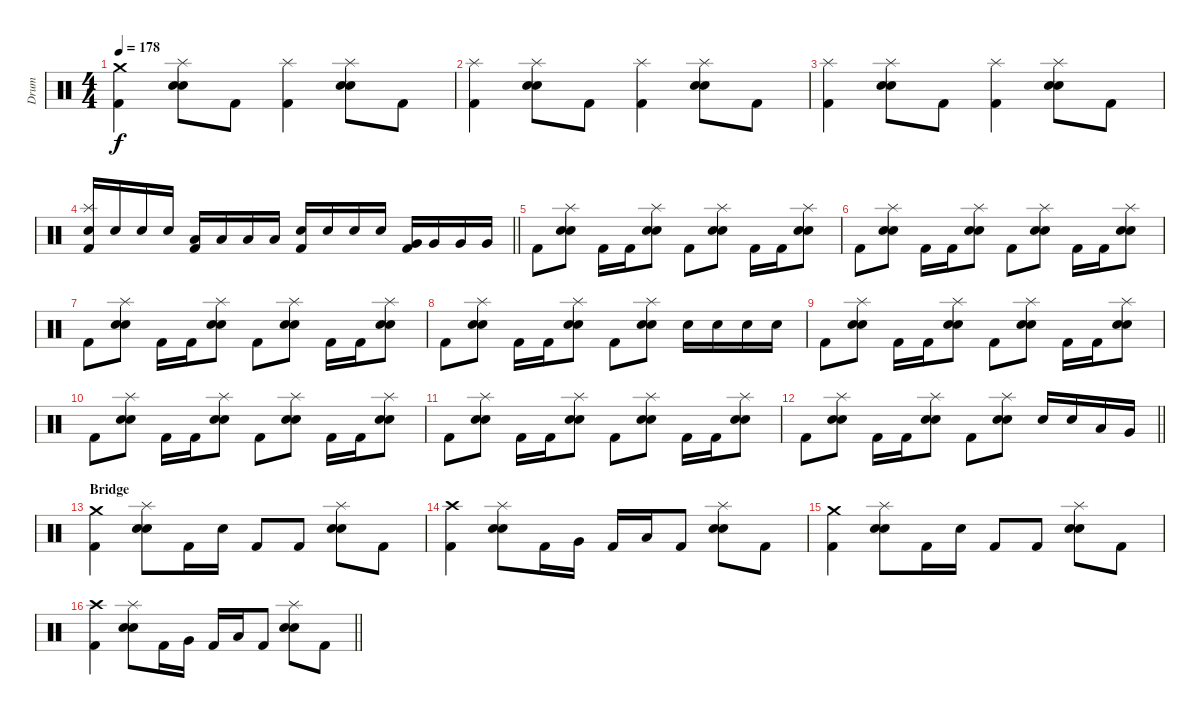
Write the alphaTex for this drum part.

\track ("Drum" "Drum") {instrument percussion}
\staff {score}
\articulation defaults
\ts (4 4)
\tempo 178
\clef neutral
\ks c
("Crash medium (hit)" "Kick (hit) 2").4{dy f} ("Splash (hit)" "Electric Snare (hit)" "Snare (hit) 2").8 "Kick (hit) 2".8 ("Splash (hit)" "Kick (hit) 2").4 ("Splash (hit)" "Electric Snare (hit)" "Snare (hit) 2").8 "Kick (hit) 2".8 |
("Splash (hit)" "Kick (hit) 2").4 ("Splash (hit)" "Electric Snare (hit)" "Snare (hit) 2").8 "Kick (hit) 2".8 ("Splash (hit)" "Kick (hit) 2").4 ("Splash (hit)" "Electric Snare (hit)" "Snare (hit) 2").8 "Kick (hit) 2".8 |
("Splash (hit)" "Kick (hit) 2").4 ("Splash (hit)" "Electric Snare (hit)" "Snare (hit) 2").8 "Kick (hit) 2".8 ("Splash (hit)" "Kick (hit) 2").4 ("Splash (hit)" "Electric Snare (hit)" "Snare (hit) 2").8 "Kick (hit) 2".8 |
\barLineRight lightlight
("Splash (hit)" "Electric Snare (hit)" "Kick (hit) 2").16 "Electric Snare (hit)".16 "Electric Snare (hit)".16 "Electric Snare (hit)".16 ("Low Tom (hit)" "Kick (hit) 2").16 "Low Tom (hit)".16 "Low Tom (hit)".16 "Low Tom (hit)".16 ("Electric Snare (hit)" "Kick (hit) 2").16 "Electric Snare (hit)".16 "Electric Snare (hit)".16 "Electric Snare (hit)".16 ("Very Low Tom (hit)" "Kick (hit) 2").16 "Very Low Tom (hit)".16 "Very Low Tom (hit)".16 "Very Low Tom (hit)".16 |
"Kick (hit) 2".8 ("Splash (hit)" "Electric Snare (hit)" "Snare (hit) 2").8 "Kick (hit) 2".16 "Kick (hit) 2".16 ("Splash (hit)" "Electric Snare (hit)" "Snare (hit) 2").8 "Kick (hit) 2".8 ("Splash (hit)" "Electric Snare (hit)" "Snare (hit) 2").8 "Kick (hit) 2".16 "Kick (hit) 2".16 ("Splash (hit)" "Electric Snare (hit)" "Snare (hit) 2").8 |
"Kick (hit) 2".8 ("Splash (hit)" "Electric Snare (hit)" "Snare (hit) 2").8 "Kick (hit) 2".16 "Kick (hit) 2".16 ("Splash (hit)" "Electric Snare (hit)" "Snare (hit) 2").8 "Kick (hit) 2".8 ("Splash (hit)" "Electric Snare (hit)" "Snare (hit) 2").8 "Kick (hit) 2".16 "Kick (hit) 2".16 ("Splash (hit)" "Electric Snare (hit)" "Snare (hit) 2").8 |
"Kick (hit) 2".8 ("Splash (hit)" "Electric Snare (hit)" "Snare (hit) 2").8 "Kick (hit) 2".16 "Kick (hit) 2".16 ("Splash (hit)" "Electric Snare (hit)" "Snare (hit) 2").8 "Kick (hit) 2".8 ("Splash (hit)" "Electric Snare (hit)" "Snare (hit) 2").8 "Kick (hit) 2".16 "Kick (hit) 2".16 ("Splash (hit)" "Electric Snare (hit)" "Snare (hit) 2").8 |
"Kick (hit) 2".8 ("Splash (hit)" "Electric Snare (hit)" "Snare (hit) 2").8 "Kick (hit) 2".16 "Kick (hit) 2".16 ("Splash (hit)" "Electric Snare (hit)" "Snare (hit) 2").8 "Kick (hit) 2".8 ("Splash (hit)" "Electric Snare (hit)" "Snare (hit) 2").8 "Electric Snare (hit)".16 "Electric Snare (hit)".16 "Electric Snare (hit)".16 "Electric Snare (hit)".16 |
"Kick (hit) 2".8 ("Splash (hit)" "Electric Snare (hit)" "Snare (hit) 2").8 "Kick (hit) 2".16 "Kick (hit) 2".16 ("Splash (hit)" "Electric Snare (hit)" "Snare (hit) 2").8 "Kick (hit) 2".8 ("Splash (hit)" "Electric Snare (hit)" "Snare (hit) 2").8 "Kick (hit) 2".16 "Kick (hit) 2".16 ("Splash (hit)" "Electric Snare (hit)" "Snare (hit) 2").8 |
"Kick (hit) 2".8 ("Splash (hit)" "Electric Snare (hit)" "Snare (hit) 2").8 "Kick (hit) 2".16 "Kick (hit) 2".16 ("Splash (hit)" "Electric Snare (hit)" "Snare (hit) 2").8 "Kick (hit) 2".8 ("Splash (hit)" "Electric Snare (hit)" "Snare (hit) 2").8 "Kick (hit) 2".16 "Kick (hit) 2".16 ("Splash (hit)" "Electric Snare (hit)" "Snare (hit) 2").8 |
"Kick (hit) 2".8 ("Splash (hit)" "Electric Snare (hit)" "Snare (hit) 2").8 "Kick (hit) 2".16 "Kick (hit) 2".16 ("Splash (hit)" "Electric Snare (hit)" "Snare (hit) 2").8 "Kick (hit) 2".8 ("Splash (hit)" "Electric Snare (hit)" "Snare (hit) 2").8 "Kick (hit) 2".16 "Kick (hit) 2".16 ("Splash (hit)" "Electric Snare (hit)" "Snare (hit) 2").8 |
\barLineRight lightlight "Kick (hit) 2".8
("Splash (hit)" "Electric Snare (hit)" "Snare (hit) 2").8 "Kick (hit) 2".16 "Kick (hit) 2".16 ("Splash (hit)" "Electric Snare (hit)" "Snare (hit) 2").8 "Kick (hit) 2".8 ("Splash (hit)" "Electric Snare (hit)" "Snare (hit) 2").8 "Electric Snare (hit)".16 "Electric Snare (hit)".16 "Low Tom (hit)".16 "Very Low Tom (hit)".16 |
\section ("" "Bridge")
("Crash medium (hit)" "Kick (hit) 2").4 ("Splash (hit)" "Electric Snare (hit)" "Snare (hit) 2").8 "Kick (hit) 2".16 "Electric Snare (hit)".16 "Kick (hit) 2".8 "Kick (hit) 2".8 ("Splash (hit)" "Electric Snare (hit)" "Snare (hit) 2").8 "Kick (hit) 2".8 |
("Crash high (hit)" "Kick (hit) 2").4 ("Splash (hit)" "Electric Snare (hit)" "Snare (hit) 2").8 "Kick (hit) 2".16 "Very Low Tom (hit)".16 "Kick (hit) 2".16 "Low Floor Tom (hit)".16 "Kick (hit) 2".8 ("Splash (hit)" "Electric Snare (hit)" "Snare (hit) 2").8 "Kick (hit) 2".8 |
("Crash medium (hit)" "Kick (hit) 2").4 ("Splash (hit)" "Electric Snare (hit)" "Snare (hit) 2").8 "Kick (hit) 2".16 "Electric Snare (hit)".16 "Kick (hit) 2".8 "Kick (hit) 2".8 ("Splash (hit)" "Electric Snare (hit)" "Snare (hit) 2").8 "Kick (hit) 2".8 |
\barLineRight lightlight
("Crash high (hit)" "Kick (hit) 2").4 ("Splash (hit)" "Electric Snare (hit)" "Snare (hit) 2").8 "Kick (hit) 2".16 "Very Low Tom (hit)".16 "Kick (hit) 2".16 "Low Floor Tom (hit)".16 "Kick (hit) 2".8 ("Splash (hit)" "Electric Snare (hit)" "Snare (hit) 2").8 "Kick (hit) 2".8
